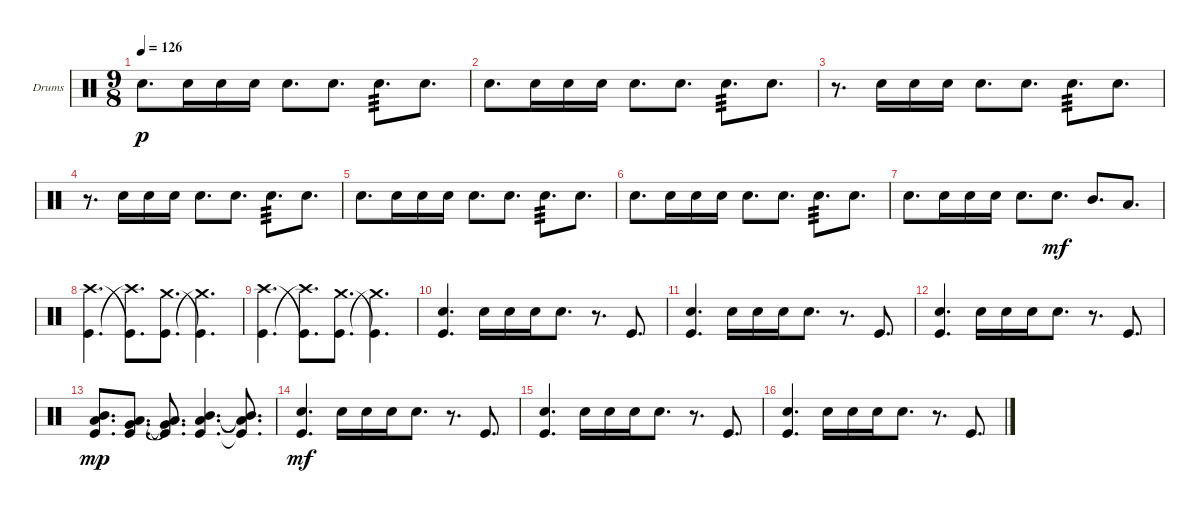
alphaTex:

\defaultSystemsLayout 4
\bracketExtendMode groupsimilarinstruments
\firstSystemTrackNameOrientation horizontal
\otherSystemsTrackNameOrientation horizontal
\track ("Drumkit" "Drums") {instrument percussion}
\staff {score}
\articulation defaults
\ts (9 8)
\tempo 126
\clef neutral
\ks c "Snare (hit) 2".8{d dy p} "Snare (hit) 2".16 "Snare (hit) 2".16 "Snare (hit) 2".16 "Snare (hit) 2".8{d} "Snare (hit) 2".8{d} "Snare (hit) 2".8{d tp 3} "Snare (hit) 2".8{d}
|
"Snare (hit) 2".8{d} "Snare (hit) 2".16 "Snare (hit) 2".16 "Snare (hit) 2".16 "Snare (hit) 2".8{d} "Snare (hit) 2".8{d} "Snare (hit) 2".8{d tp 3} "Snare (hit) 2".8{d} |
r.8{d} "Snare (hit) 2".16 "Snare (hit) 2".16 "Snare (hit) 2".16 "Snare (hit) 2".8{d} "Snare (hit) 2".8{d} "Snare (hit) 2".8{d tp 3} "Snare (hit) 2".8{d} |
r.8{d} "Snare (hit) 2".16 "Snare (hit) 2".16 "Snare (hit) 2".16 "Snare (hit) 2".8{d} "Snare (hit) 2".8{d} "Snare (hit) 2".8{d tp 3} "Snare (hit) 2".8{d} |
"Snare (hit) 2".8{d} "Snare (hit) 2".16 "Snare (hit) 2".16 "Snare (hit) 2".16 "Snare (hit) 2".8{d} "Snare (hit) 2".8{d} "Snare (hit) 2".8{d tp 3} "Snare (hit) 2".8{d} |
"Snare (hit) 2".8{d} "Snare (hit) 2".16 "Snare (hit) 2".16 "Snare (hit) 2".16 "Snare (hit) 2".8{d} "Snare (hit) 2".8{d} "Snare (hit) 2".8{d tp 3} "Snare (hit) 2".8{d} |
"Snare (hit) 2".8{d} "Snare (hit) 2".16 "Snare (hit) 2".16 "Snare (hit) 2".16 "Snare (hit) 2".8{d} "Snare (hit) 2".8{d dy mf} "Mid Tom (hit)".8{d} "Low Tom (hit)".8{d} |
("Kick (hit)" "Crash high (hit)").4{d} ("Crash high (hit)"{t} "Kick (hit)"{t}).8{d} ("Kick (hit)" "Crash medium (hit)").8{d} ("Crash medium (hit)"{t} "Kick (hit)"{t}).4{d} |
("Kick (hit)" "Crash high (hit)").4{d} ("Crash high (hit)"{t} "Kick (hit)"{t}).8{d} ("Kick (hit)" "Crash medium (hit)").8{d} ("Crash medium (hit)"{t} "Kick (hit)"{t}).4{d} |
("Snare (hit) 2" "Kick (hit)").4{d} "Snare (hit) 2".16 "Snare (hit) 2".16 "Snare (hit) 2".16 "Snare (hit) 2".8{d} r.8{d} "Kick (hit)".8{d} |
("Snare (hit) 2" "Kick (hit)").4{d} "Snare (hit) 2".16 "Snare (hit) 2".16 "Snare (hit) 2".16 "Snare (hit) 2".8{d} r.8{d} "Kick (hit)".8{d} |
("Snare (hit) 2" "Kick (hit)").4{d} "Snare (hit) 2".16 "Snare (hit) 2".16 "Snare (hit) 2".16 "Snare (hit) 2".8{d} r.8{d} "Kick (hit)".8{d} |
("Mid Tom (hit)" "Low Tom (hit)" "Kick (hit)").8{d dy mp} ("Low Tom (hit)" "Very Low Tom (hit)" "Kick (hit)").8{d} ("Kick (hit)"{t} "Very Low Tom (hit)"{t} "Low Tom (hit)"{t}).8{d} ("Low Tom (hit)" "Mid Tom (hit)" "Kick (hit)").4{d} ("Mid Tom (hit)"{t} "Low Tom (hit)"{t} "Kick (hit)"{t}).8{d} |
("Snare (hit) 2" "Kick (hit)").4{d dy mf} "Snare (hit) 2".16 "Snare (hit) 2".16 "Snare (hit) 2".16 "Snare (hit) 2".8{d} r.8{d} "Kick (hit)".8{d} |
("Snare (hit) 2" "Kick (hit)").4{d} "Snare (hit) 2".16 "Snare (hit) 2".16 "Snare (hit) 2".16 "Snare (hit) 2".8{d} r.8{d} "Kick (hit)".8{d} |
("Snare (hit) 2" "Kick (hit)").4{d} "Snare (hit) 2".16 "Snare (hit) 2".16 "Snare (hit) 2".16 "Snare (hit) 2".8{d} r.8{d} "Kick (hit)".8{d}
